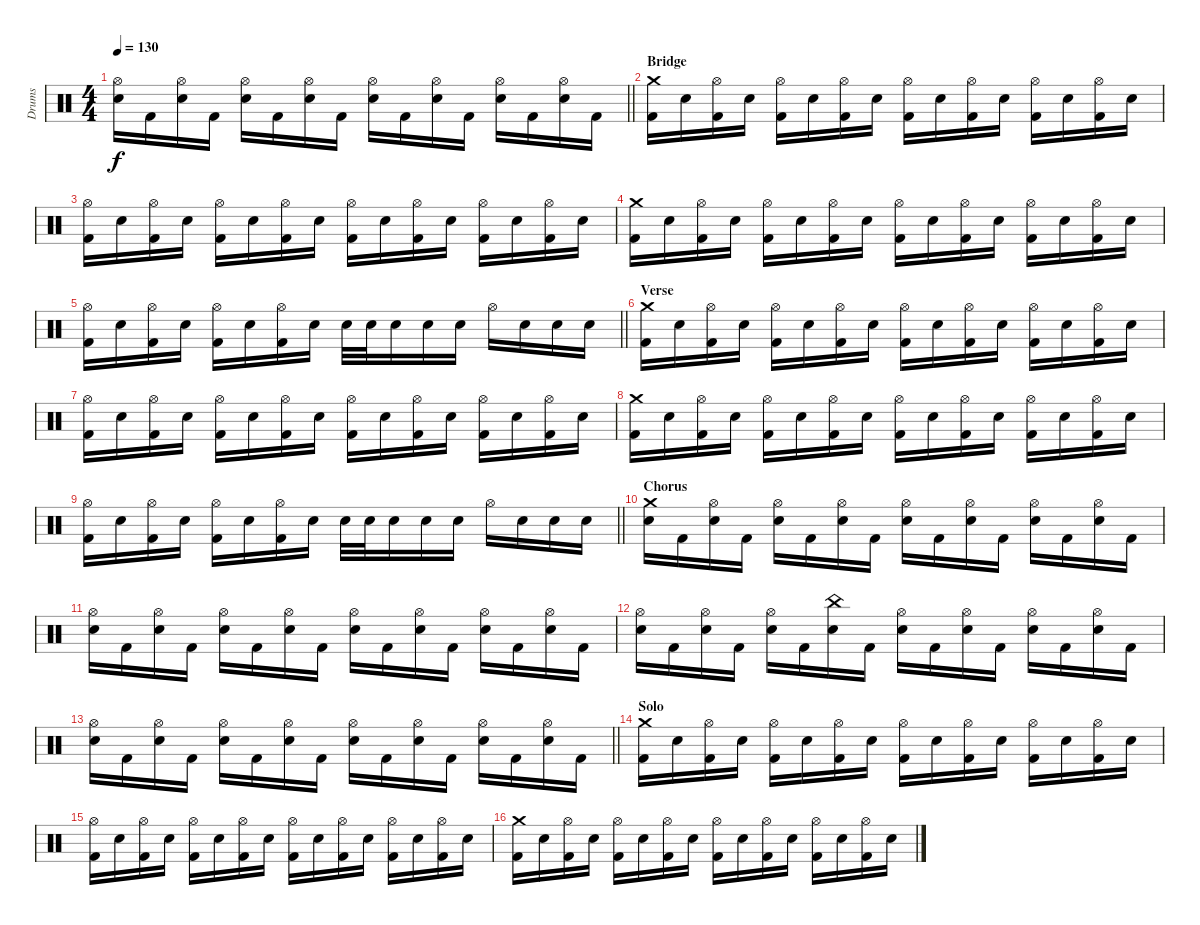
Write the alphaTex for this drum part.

\track ("Drums" "Drums") {instrument percussion}
\staff {score}
\articulation defaults
\ts (4 4)
\tempo 130
\clef neutral
\barLineRight lightlight
\ks c
("Hi-Hat (open)" "Electric Snare (hit)").16{dy f} "Kick (hit) 2".16 ("Hi-Hat (open)" "Electric Snare (hit)").16 "Kick (hit) 2".16 ("Hi-Hat (open)" "Electric Snare (hit)").16 "Kick (hit) 2".16 ("Hi-Hat (open)" "Electric Snare (hit)").16 "Kick (hit) 2".16 ("Hi-Hat (open)" "Electric Snare (hit)").16 "Kick (hit) 2".16 ("Hi-Hat (open)" "Electric Snare (hit)").16 "Kick (hit) 2".16 ("Hi-Hat (open)" "Electric Snare (hit)").16 "Kick (hit) 2".16 ("Hi-Hat (open)" "Electric Snare (hit)").16 "Kick (hit) 2".16 |
\section ("" "Bridge")
("Crash medium (hit)" "Kick (hit) 2").16 "Electric Snare (hit)".16 ("Hi-Hat (open)" "Kick (hit) 2").16 "Electric Snare (hit)".16 ("Hi-Hat (open)" "Kick (hit) 2").16 "Electric Snare (hit)".16 ("Hi-Hat (open)" "Kick (hit) 2").16 "Electric Snare (hit)".16 ("Hi-Hat (open)" "Kick (hit) 2").16 "Electric Snare (hit)".16 ("Hi-Hat (open)" "Kick (hit) 2").16 "Electric Snare (hit)".16 ("Hi-Hat (open)" "Kick (hit) 2").16 "Electric Snare (hit)".16 ("Hi-Hat (open)" "Kick (hit) 2").16 "Electric Snare (hit)".16 |
("Hi-Hat (open)" "Kick (hit) 2").16 "Electric Snare (hit)".16 ("Hi-Hat (open)" "Kick (hit) 2").16 "Electric Snare (hit)".16 ("Hi-Hat (open)" "Kick (hit) 2").16 "Electric Snare (hit)".16 ("Hi-Hat (open)" "Kick (hit) 2").16 "Electric Snare (hit)".16 ("Hi-Hat (open)" "Kick (hit) 2").16 "Electric Snare (hit)".16 ("Hi-Hat (open)" "Kick (hit) 2").16 "Electric Snare (hit)".16 ("Hi-Hat (open)" "Kick (hit) 2").16 "Electric Snare (hit)".16 ("Hi-Hat (open)" "Kick (hit) 2").16 "Electric Snare (hit)".16 |
("Crash medium (hit)" "Kick (hit) 2").16 "Electric Snare (hit)".16 ("Hi-Hat (open)" "Kick (hit) 2").16 "Electric Snare (hit)".16 ("Hi-Hat (open)" "Kick (hit) 2").16 "Electric Snare (hit)".16 ("Hi-Hat (open)" "Kick (hit) 2").16 "Electric Snare (hit)".16 ("Hi-Hat (open)" "Kick (hit) 2").16 "Electric Snare (hit)".16 ("Hi-Hat (open)" "Kick (hit) 2").16 "Electric Snare (hit)".16 ("Hi-Hat (open)" "Kick (hit) 2").16 "Electric Snare (hit)".16 ("Hi-Hat (open)" "Kick (hit) 2").16 "Electric Snare (hit)".16 |
\barLineRight lightlight
("Hi-Hat (open)" "Kick (hit) 2").16 "Electric Snare (hit)".16 ("Hi-Hat (open)" "Kick (hit) 2").16 "Electric Snare (hit)".16 ("Hi-Hat (open)" "Kick (hit) 2").16 "Electric Snare (hit)".16 ("Hi-Hat (open)" "Kick (hit) 2").16 "Electric Snare (hit)".16 "Electric Snare (hit)".32 "Electric Snare (hit)".32 "Electric Snare (hit)".16 "Electric Snare (hit)".16 "Electric Snare (hit)".16 "Hi-Hat (open)".16 "Electric Snare (hit)".16 "Electric Snare (hit)".16 "Electric Snare (hit)".16 |
\section ("" "Verse")
("Crash medium (hit)" "Kick (hit) 2").16 "Electric Snare (hit)".16 ("Hi-Hat (open)" "Kick (hit) 2").16 "Electric Snare (hit)".16 ("Hi-Hat (open)" "Kick (hit) 2").16 "Electric Snare (hit)".16 ("Hi-Hat (open)" "Kick (hit) 2").16 "Electric Snare (hit)".16 ("Hi-Hat (open)" "Kick (hit) 2").16 "Electric Snare (hit)".16 ("Hi-Hat (open)" "Kick (hit) 2").16 "Electric Snare (hit)".16 ("Hi-Hat (open)" "Kick (hit) 2").16 "Electric Snare (hit)".16 ("Hi-Hat (open)" "Kick (hit) 2").16 "Electric Snare (hit)".16 |
("Hi-Hat (open)" "Kick (hit) 2").16 "Electric Snare (hit)".16 ("Hi-Hat (open)" "Kick (hit) 2").16 "Electric Snare (hit)".16 ("Hi-Hat (open)" "Kick (hit) 2").16 "Electric Snare (hit)".16 ("Hi-Hat (open)" "Kick (hit) 2").16 "Electric Snare (hit)".16 ("Hi-Hat (open)" "Kick (hit) 2").16 "Electric Snare (hit)".16 ("Hi-Hat (open)" "Kick (hit) 2").16 "Electric Snare (hit)".16 ("Hi-Hat (open)" "Kick (hit) 2").16 "Electric Snare (hit)".16 ("Hi-Hat (open)" "Kick (hit) 2").16 "Electric Snare (hit)".16 |
("Crash medium (hit)" "Kick (hit) 2").16 "Electric Snare (hit)".16 ("Hi-Hat (open)" "Kick (hit) 2").16 "Electric Snare (hit)".16 ("Hi-Hat (open)" "Kick (hit) 2").16 "Electric Snare (hit)".16 ("Hi-Hat (open)" "Kick (hit) 2").16 "Electric Snare (hit)".16 ("Hi-Hat (open)" "Kick (hit) 2").16 "Electric Snare (hit)".16 ("Hi-Hat (open)" "Kick (hit) 2").16 "Electric Snare (hit)".16 ("Hi-Hat (open)" "Kick (hit) 2").16 "Electric Snare (hit)".16 ("Hi-Hat (open)" "Kick (hit) 2").16 "Electric Snare (hit)".16 |
\barLineRight lightlight
("Hi-Hat (open)" "Kick (hit) 2").16 "Electric Snare (hit)".16 ("Hi-Hat (open)" "Kick (hit) 2").16 "Electric Snare (hit)".16 ("Hi-Hat (open)" "Kick (hit) 2").16 "Electric Snare (hit)".16 ("Hi-Hat (open)" "Kick (hit) 2").16 "Electric Snare (hit)".16 "Electric Snare (hit)".32 "Electric Snare (hit)".32 "Electric Snare (hit)".16 "Electric Snare (hit)".16 "Electric Snare (hit)".16 "Hi-Hat (open)".16 "Electric Snare (hit)".16 "Electric Snare (hit)".16 "Electric Snare (hit)".16 |
\section ("" "Chorus")
("Crash medium (hit)" "Electric Snare (hit)").16 "Kick (hit) 2".16 ("Hi-Hat (open)" "Electric Snare (hit)").16 "Kick (hit) 2".16 ("Hi-Hat (open)" "Electric Snare (hit)").16 "Kick (hit) 2".16 ("Hi-Hat (open)" "Electric Snare (hit)").16 "Kick (hit) 2".16 ("Hi-Hat (open)" "Electric Snare (hit)").16 "Kick (hit) 2".16 ("Hi-Hat (open)" "Electric Snare (hit)").16 "Kick (hit) 2".16 ("Hi-Hat (open)" "Electric Snare (hit)").16 "Kick (hit) 2".16 ("Hi-Hat (open)" "Electric Snare (hit)").16 "Kick (hit) 2".16 |
("Hi-Hat (open)" "Electric Snare (hit)").16 "Kick (hit) 2".16 ("Hi-Hat (open)" "Electric Snare (hit)").16 "Kick (hit) 2".16 ("Hi-Hat (open)" "Electric Snare (hit)").16 "Kick (hit) 2".16 ("Hi-Hat (open)" "Electric Snare (hit)").16 "Kick (hit) 2".16 ("Hi-Hat (open)" "Electric Snare (hit)").16 "Kick (hit) 2".16 ("Hi-Hat (open)" "Electric Snare (hit)").16 "Kick (hit) 2".16 ("Hi-Hat (open)" "Electric Snare (hit)").16 "Kick (hit) 2".16 ("Hi-Hat (open)" "Electric Snare (hit)").16 "Kick (hit) 2".16 |
("Hi-Hat (open)" "Electric Snare (hit)").16 "Kick (hit) 2".16 ("Hi-Hat (open)" "Electric Snare (hit)").16 "Kick (hit) 2".16 ("Hi-Hat (open)" "Electric Snare (hit)").16 "Kick (hit) 2".16 ("China (hit)" "Electric Snare (hit)").16 "Kick (hit) 2".16 ("Hi-Hat (open)" "Electric Snare (hit)").16 "Kick (hit) 2".16 ("Hi-Hat (open)" "Electric Snare (hit)").16 "Kick (hit) 2".16 ("Hi-Hat (open)" "Electric Snare (hit)").16 "Kick (hit) 2".16 ("Hi-Hat (open)" "Electric Snare (hit)").16 "Kick (hit) 2".16 |
\barLineRight lightlight
("Hi-Hat (open)" "Electric Snare (hit)").16 "Kick (hit) 2".16 ("Hi-Hat (open)" "Electric Snare (hit)").16 "Kick (hit) 2".16 ("Hi-Hat (open)" "Electric Snare (hit)").16 "Kick (hit) 2".16 ("Hi-Hat (open)" "Electric Snare (hit)").16 "Kick (hit) 2".16 ("Hi-Hat (open)" "Electric Snare (hit)").16 "Kick (hit) 2".16 ("Hi-Hat (open)" "Electric Snare (hit)").16 "Kick (hit) 2".16 ("Hi-Hat (open)" "Electric Snare (hit)").16 "Kick (hit) 2".16 ("Hi-Hat (open)" "Electric Snare (hit)").16 "Kick (hit) 2".16 |
\section ("" "Solo")
("Crash medium (hit)" "Kick (hit) 2").16 "Electric Snare (hit)".16 ("Hi-Hat (open)" "Kick (hit) 2").16 "Electric Snare (hit)".16 ("Hi-Hat (open)" "Kick (hit) 2").16 "Electric Snare (hit)".16 ("Hi-Hat (open)" "Kick (hit) 2").16 "Electric Snare (hit)".16 ("Hi-Hat (open)" "Kick (hit) 2").16 "Electric Snare (hit)".16 ("Hi-Hat (open)" "Kick (hit) 2").16 "Electric Snare (hit)".16 ("Hi-Hat (open)" "Kick (hit) 2").16 "Electric Snare (hit)".16 ("Hi-Hat (open)" "Kick (hit) 2").16 "Electric Snare (hit)".16 |
("Hi-Hat (open)" "Kick (hit) 2").16 "Electric Snare (hit)".16 ("Hi-Hat (open)" "Kick (hit) 2").16 "Electric Snare (hit)".16 ("Hi-Hat (open)" "Kick (hit) 2").16 "Electric Snare (hit)".16 ("Hi-Hat (open)" "Kick (hit) 2").16 "Electric Snare (hit)".16 ("Hi-Hat (open)" "Kick (hit) 2").16 "Electric Snare (hit)".16 ("Hi-Hat (open)" "Kick (hit) 2").16 "Electric Snare (hit)".16 ("Hi-Hat (open)" "Kick (hit) 2").16 "Electric Snare (hit)".16 ("Hi-Hat (open)" "Kick (hit) 2").16 "Electric Snare (hit)".16 |
("Crash medium (hit)" "Kick (hit) 2").16 "Electric Snare (hit)".16 ("Hi-Hat (open)" "Kick (hit) 2").16 "Electric Snare (hit)".16 ("Hi-Hat (open)" "Kick (hit) 2").16 "Electric Snare (hit)".16 ("Hi-Hat (open)" "Kick (hit) 2").16 "Electric Snare (hit)".16 ("Hi-Hat (open)" "Kick (hit) 2").16 "Electric Snare (hit)".16 ("Hi-Hat (open)" "Kick (hit) 2").16 "Electric Snare (hit)".16 ("Hi-Hat (open)" "Kick (hit) 2").16 "Electric Snare (hit)".16 ("Hi-Hat (open)" "Kick (hit) 2").16 "Electric Snare (hit)".16
